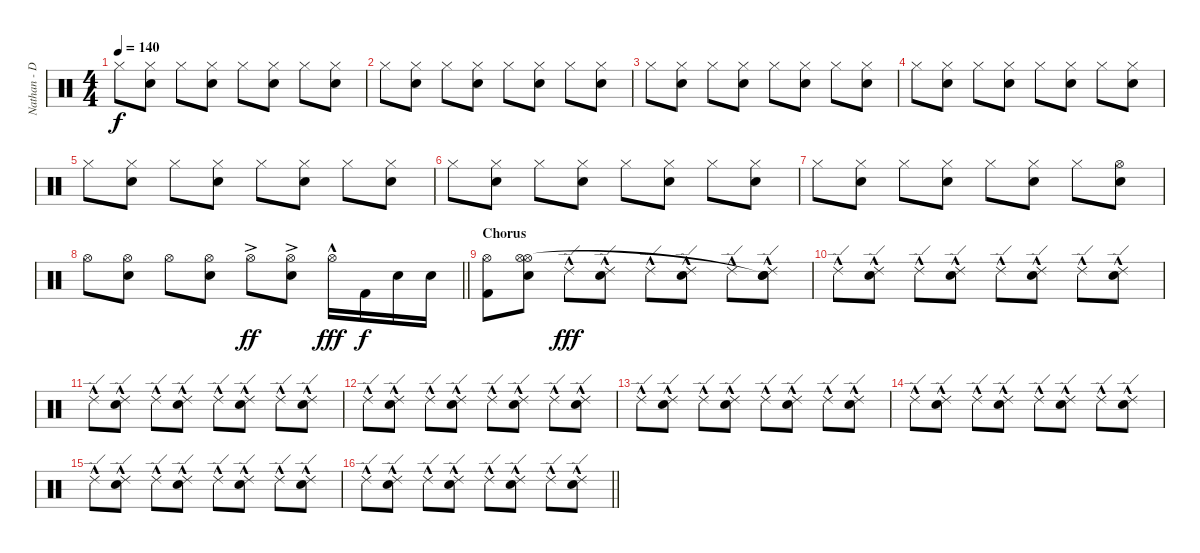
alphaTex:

\track ("Nathan - Drums MIDI" "Nathan - D") {instrument percussion}
\staff {score}
\articulation defaults
\ts (4 4)
\tempo 140
\clef neutral
\ks c "Hi-Hat (closed)".8{dy f}
("Hi-Hat (closed)" "Snare (hit) 2").8 "Hi-Hat (closed)".8 ("Hi-Hat (closed)" "Snare (hit) 2").8 "Hi-Hat (closed)".8 ("Hi-Hat (closed)" "Snare (hit) 2").8 "Hi-Hat (closed)".8 ("Hi-Hat (closed)" "Snare (hit) 2").8 |
"Hi-Hat (closed)".8 ("Hi-Hat (closed)" "Snare (hit) 2").8 "Hi-Hat (closed)".8 ("Hi-Hat (closed)" "Snare (hit) 2").8 "Hi-Hat (closed)".8 ("Hi-Hat (closed)" "Snare (hit) 2").8 "Hi-Hat (closed)".8 ("Hi-Hat (closed)" "Snare (hit) 2").8 |
"Hi-Hat (closed)".8 ("Hi-Hat (closed)" "Snare (hit) 2").8 "Hi-Hat (closed)".8 ("Hi-Hat (closed)" "Snare (hit) 2").8 "Hi-Hat (closed)".8 ("Hi-Hat (closed)" "Snare (hit) 2").8 "Hi-Hat (closed)".8 ("Hi-Hat (closed)" "Snare (hit) 2").8 |
"Hi-Hat (closed)".8 ("Hi-Hat (closed)" "Snare (hit) 2").8 "Hi-Hat (closed)".8 ("Hi-Hat (closed)" "Snare (hit) 2").8 "Hi-Hat (closed)".8 ("Hi-Hat (closed)" "Snare (hit) 2").8 "Hi-Hat (closed)".8 ("Hi-Hat (closed)" "Snare (hit) 2").8 |
"Hi-Hat (closed)".8 ("Hi-Hat (closed)" "Snare (hit) 2").8 "Hi-Hat (closed)".8 ("Hi-Hat (closed)" "Snare (hit) 2").8 "Hi-Hat (closed)".8 ("Hi-Hat (closed)" "Snare (hit) 2").8 "Hi-Hat (closed)".8 ("Hi-Hat (closed)" "Snare (hit) 2").8 |
"Hi-Hat (closed)".8 ("Hi-Hat (closed)" "Snare (hit) 2").8 "Hi-Hat (closed)".8 ("Hi-Hat (closed)" "Snare (hit) 2").8 "Hi-Hat (closed)".8 ("Hi-Hat (closed)" "Snare (hit) 2").8 "Hi-Hat (closed)".8 ("Hi-Hat (closed)" "Snare (hit) 2").8 |
"Hi-Hat (closed)".8 ("Hi-Hat (closed)" "Snare (hit) 2").8 "Hi-Hat (closed)".8 ("Hi-Hat (closed)" "Snare (hit) 2").8 "Hi-Hat (closed)".8 ("Hi-Hat (closed)" "Snare (hit) 2").8 "Hi-Hat (closed)".8 ("Hi-Hat (open)" "Snare (hit) 2").8 |
\barLineRight lightlight "Hi-Hat (open)".8
("Hi-Hat (open)" "Snare (hit) 2").8 "Hi-Hat (open)".8 ("Hi-Hat (open)" "Snare (hit) 2").8 "Hi-Hat (open)"{ac}.8{dy ff} ("Hi-Hat (open)"{ac} "Snare (hit) 2").8 "Hi-Hat (open)"{hac}.16{dy fff} "Kick (hit) 2".16{dy f} "Snare (hit) 2".16 "Snare (hit) 2".16 |
\section ("" "Chorus")
("Hi-Hat (open)" "Kick (hit) 2").8 ("Hi-Hat (open)" "Snare (hit) 2" "Hi-Hat (open)").8 "Ride (edge) 2"{hac}.8{dy fff} ("Ride (edge) 2"{hac} "Snare (hit) 2").8 "Ride (edge) 2"{hac}.8 ("Ride (edge) 2"{hac} "Snare (hit) 2").8 "Ride (edge) 2"{hac}.8 ("Ride (edge) 2"{hac} "Snare (hit) 2" "Snare (hit)"{t}).8 |
"Ride (edge) 2"{hac}.8 ("Ride (edge) 2"{hac} "Snare (hit) 2").8 "Ride (edge) 2"{hac}.8 ("Ride (edge) 2"{hac} "Snare (hit) 2").8 "Ride (edge) 2"{hac}.8 ("Ride (edge) 2"{hac} "Snare (hit) 2").8 "Ride (edge) 2"{hac}.8 ("Ride (edge) 2"{hac} "Snare (hit) 2").8 |
"Ride (edge) 2"{hac}.8 ("Ride (edge) 2"{hac} "Snare (hit) 2").8 "Ride (edge) 2"{hac}.8 ("Ride (edge) 2"{hac} "Snare (hit) 2").8 "Ride (edge) 2"{hac}.8 ("Ride (edge) 2"{hac} "Snare (hit) 2").8 "Ride (edge) 2"{hac}.8 ("Ride (edge) 2"{hac} "Snare (hit) 2").8 |
"Ride (edge) 2"{hac}.8 ("Ride (edge) 2"{hac} "Snare (hit) 2").8 "Ride (edge) 2"{hac}.8 ("Ride (edge) 2"{hac} "Snare (hit) 2").8 "Ride (edge) 2"{hac}.8 ("Ride (edge) 2"{hac} "Snare (hit) 2").8 "Ride (edge) 2"{hac}.8 ("Ride (edge) 2"{hac} "Snare (hit) 2").8 |
"Ride (edge) 2"{hac}.8 ("Ride (edge) 2"{hac} "Snare (hit) 2").8 "Ride (edge) 2"{hac}.8 ("Ride (edge) 2"{hac} "Snare (hit) 2").8 "Ride (edge) 2"{hac}.8 ("Ride (edge) 2"{hac} "Snare (hit) 2").8 "Ride (edge) 2"{hac}.8 ("Ride (edge) 2"{hac} "Snare (hit) 2").8 |
"Ride (edge) 2"{hac}.8 ("Ride (edge) 2"{hac} "Snare (hit) 2").8 "Ride (edge) 2"{hac}.8 ("Ride (edge) 2"{hac} "Snare (hit) 2").8 "Ride (edge) 2"{hac}.8 ("Ride (edge) 2"{hac} "Snare (hit) 2").8 "Ride (edge) 2"{hac}.8 ("Ride (edge) 2"{hac} "Snare (hit) 2").8 |
"Ride (edge) 2"{hac}.8 ("Ride (edge) 2"{hac} "Snare (hit) 2").8 "Ride (edge) 2"{hac}.8 ("Ride (edge) 2"{hac} "Snare (hit) 2").8 "Ride (edge) 2"{hac}.8 ("Ride (edge) 2"{hac} "Snare (hit) 2").8 "Ride (edge) 2"{hac}.8 ("Ride (edge) 2"{hac} "Snare (hit) 2").8 |
\barLineRight lightlight "Ride (edge) 2"{hac}.8
("Ride (edge) 2"{hac} "Snare (hit) 2").8 "Ride (edge) 2"{hac}.8 ("Ride (edge) 2"{hac} "Snare (hit) 2").8 "Ride (edge) 2"{hac}.8 ("Ride (edge) 2"{hac} "Snare (hit) 2").8 "Ride (edge) 2"{hac}.8 ("Ride (edge) 2"{hac} "Snare (hit) 2").8
